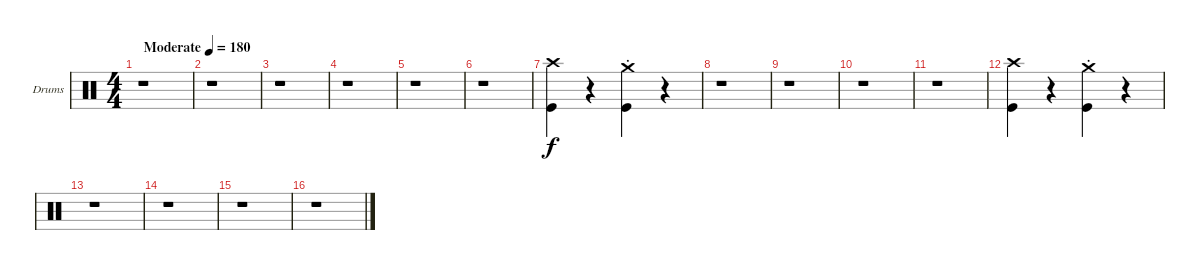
\bracketExtendMode groupsimilarinstruments
\firstSystemTrackNameOrientation horizontal
\otherSystemsTrackNameOrientation horizontal
\track ("Drumkit" "Drums") {solo instrument percussion}
\staff {score}
\articulation defaults
\ts (4 4)
\beaming (8 2 2 2 2)
\tempo (180 "Moderate")
\clef neutral
\ks c
r.1{dy f} |
r.1 |
r.1 |
r.1 |
r.1 |
r.1 |
("Crash high (hit)" "Kick (hit)").4 r.4 ("Kick (hit)" "Crash medium (hit)"{st}).4 r.4 |
r.1 |
r.1 |
r.1 |
r.1 |
("Crash high (hit)" "Kick (hit)").4 r.4 ("Kick (hit)" "Crash medium (hit)"{st}).4 r.4 |
r.1 |
r.1 |
r.1 |
r.1
